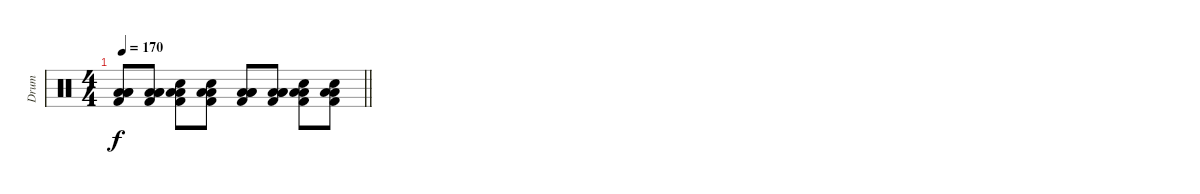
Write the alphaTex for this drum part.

\track ("Drum" "Drum") {instrument percussion}
\staff {score}
\articulation defaults
\ts (4 4)
\tempo 170
\clef neutral
\barLineRight lightlight
\ks c
("Low Tom (hit)" "Low Tom (hit)" "Low Floor Tom (hit)" "Kick (hit) 2").8{dy f} ("Low Tom (hit)" "Low Tom (hit)" "Low Floor Tom (hit)" "Kick (hit) 2").8 ("Low Tom (hit)" "Electric Snare (hit)" "Low Floor Tom (hit)" "Kick (hit) 2").8 ("Low Tom (hit)" "Electric Snare (hit)" "Low Floor Tom (hit)" "Kick (hit) 2").8 ("Low Tom (hit)" "Low Tom (hit)" "Low Floor Tom (hit)" "Kick (hit) 2").8 ("Low Tom (hit)" "Low Tom (hit)" "Low Floor Tom (hit)" "Kick (hit) 2").8 ("Low Tom (hit)" "Electric Snare (hit)" "Low Floor Tom (hit)" "Kick (hit) 2").8 ("Low Tom (hit)" "Electric Snare (hit)" "Low Floor Tom (hit)" "Kick (hit) 2").8
